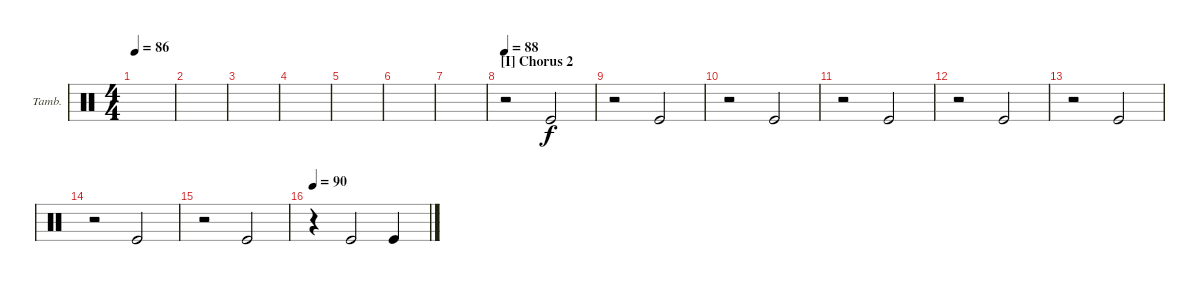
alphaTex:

\defaultSystemsLayout 4
\bracketExtendMode groupsimilarinstruments
\firstSystemTrackNameOrientation horizontal
\otherSystemsTrackNameOrientation horizontal
\track ("Tambourine" "Tamb.") {instrument percussion}
\staff {score}
\articulation defaults
\ts (4 4)
\tempo 86
\clef neutral
\ks c
|
|
|
|
|
|
|
\section ("I" "Chorus 2")
\tempo 88
r.2 "Kick (hit)".2 |
r.2 "Kick (hit)".2 |
r.2 "Kick (hit)".2 |
r.2 "Kick (hit)".2 |
r.2 "Kick (hit)".2 |
r.2 "Kick (hit)".2 |
r.2 "Kick (hit)".2 |
r.2 "Kick (hit)".2 |
\tempo 90
r.4 "Kick (hit)".2 "Kick (hit)".4
